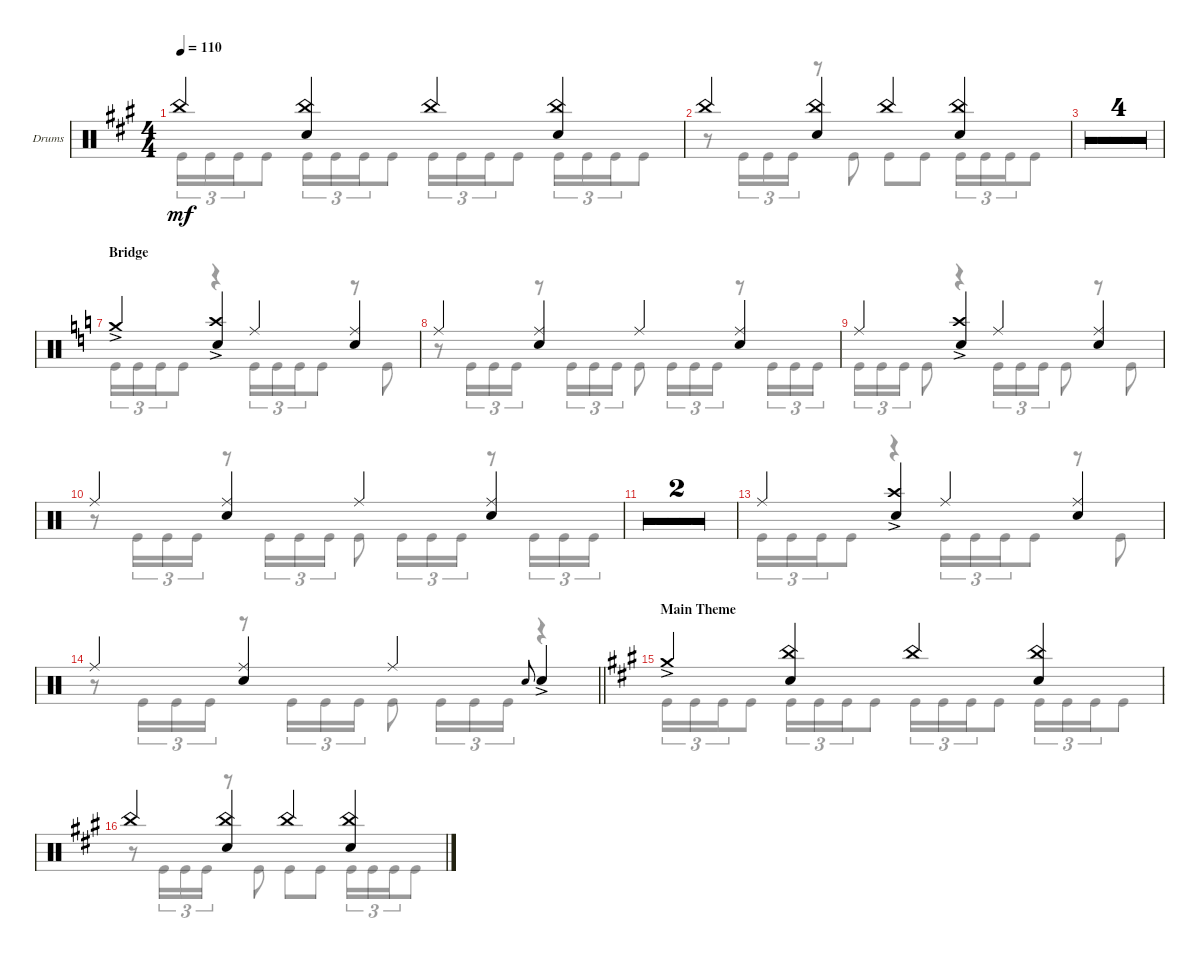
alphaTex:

\defaultSystemsLayout 4
\bracketExtendMode groupsimilarinstruments
\firstSystemTrackNameOrientation horizontal
\otherSystemsTrackNameOrientation horizontal
\track ("Drums" "Drums") {multiBarRest instrument percussion}
\staff {score}
\articulation defaults
\voice
\ts (4 4)
\tempo 110
\clef neutral
\ks f#minor "China (hit)".4{dy mf}
("China (hit)" "Snare (hit) 2").4 "China (hit)".4 ("China (hit)" "Snare (hit) 2").4 |
"China (hit)".4 ("China (hit)" "Snare (hit) 2").4 "China (hit)".4 ("China (hit)" "Snare (hit) 2").4 |
\simile firstofdouble
|
\simile secondofdouble
|
\simile firstofdouble
|
\rc 2
\simile secondofdouble
\barLineRight lightlight
|
\section ("" "Bridge")
\simile none
\ks aminor "Crash medium (hit)"{ac}.4
("Crash high (hit)"{ac} "Snare (hit) 2").4 "Ride (middle)".4 ("Ride (middle)" "Snare (hit) 2").4 |
"Ride (middle)".4 ("Ride (middle)" "Snare (hit) 2").4 "Ride (middle)".4{beam merge} ("Ride (middle)" "Snare (hit) 2").4{beam merge} |
"Ride (middle)".4 ("Crash high (hit)"{ac} "Snare (hit) 2").4 "Ride (middle)".4 ("Ride (middle)" "Snare (hit) 2").4 |
"Ride (middle)".4 ("Ride (middle)" "Snare (hit) 2").4 "Ride (middle)".4 ("Ride (middle)" "Snare (hit) 2").4 |
\simile firstofdouble
|
\simile secondofdouble
|
\simile none "Ride (middle)".4
("Crash high (hit)"{ac} "Snare (hit) 2").4 "Ride (middle)".4 ("Ride (middle)" "Snare (hit) 2").4 |
\barLineRight lightlight "Ride (middle)".4
("Ride (middle)" "Snare (hit) 2").4 "Ride (middle)".4{beam merge} "Snare (hit) 2".8{gr onbeat beam merge} "Snare (hit) 2"{ac}.4{beam merge} |
\section ("" "Main Theme")
\ks a "Crash medium (hit)"{ac}.4
("China (hit)" "Snare (hit) 2").4 "China (hit)".4 ("China (hit)" "Snare (hit) 2").4 |
"China (hit)".4 ("China (hit)" "Snare (hit) 2").4 "China (hit)".4 ("China (hit)" "Snare (hit) 2").4
\voice
\clef neutral
\ottava regular
\simile none
\ks f#minor "Kick (hit)".16{tu (3 2) dy mf} "Kick (hit)".16{tu (3 2)} "Kick (hit)".16{tu (3 2) beam merge} "Kick (hit)".8 "Kick (hit)".16{tu (3 2)} "Kick (hit)".16{tu (3 2)} "Kick (hit)".16{tu (3 2) beam merge} "Kick (hit)".8 "Kick (hit)".16{tu (3 2)} "Kick (hit)".16{tu (3 2)} "Kick (hit)".16{tu (3 2) beam merge} "Kick (hit)".8 "Kick (hit)".16{tu (3 2)} "Kick (hit)".16{tu (3 2)} "Kick (hit)".16{tu (3 2) beam merge} "Kick (hit)".8
|
r.8 "Kick (hit)".16{tu (3 2)} "Kick (hit)".16{tu (3 2)} "Kick (hit)".16{tu (3 2)} r.8 "Kick (hit)".8 "Kick (hit)".8 "Kick (hit)".8 "Kick (hit)".16{tu (3 2)} "Kick (hit)".16{tu (3 2)} "Kick (hit)".16{tu (3 2) beam merge} "Kick (hit)".8 |
\simile firstofdouble
|
\simile secondofdouble
|
\simile firstofdouble
|
\simile secondofdouble
\barLineRight lightlight
|
\simile none
\ks aminor "Kick (hit)".16{tu (3 2)} "Kick (hit)".16{tu (3 2)} "Kick (hit)".16{tu (3 2) beam merge} "Kick (hit)".8
r.4 "Kick (hit)".16{tu (3 2)} "Kick (hit)".16{tu (3 2)} "Kick (hit)".16{tu (3 2) beam merge} "Kick (hit)".8 r.8 "Kick (hit)".8 |
r.8 "Kick (hit)".16{tu (3 2)} "Kick (hit)".16{tu (3 2)} "Kick (hit)".16{tu (3 2)} r.8 "Kick (hit)".16{tu (3 2)} "Kick (hit)".16{tu (3 2)} "Kick (hit)".16{tu (3 2)} "Kick (hit)".8 "Kick (hit)".16{tu (3 2)} "Kick (hit)".16{tu (3 2)} "Kick (hit)".16{tu (3 2)} r.8 "Kick (hit)".16{tu (3 2)} "Kick (hit)".16{tu (3 2)} "Kick (hit)".16{tu (3 2)} |
"Kick (hit)".16{tu (3 2)} "Kick (hit)".16{tu (3 2)} "Kick (hit)".16{tu (3 2)} "Kick (hit)".8 r.4 "Kick (hit)".16{tu (3 2)} "Kick (hit)".16{tu (3 2)} "Kick (hit)".16{tu (3 2)} "Kick (hit)".8 r.8 "Kick (hit)".8 |
r.8 "Kick (hit)".16{tu (3 2)} "Kick (hit)".16{tu (3 2)} "Kick (hit)".16{tu (3 2)} r.8 "Kick (hit)".16{tu (3 2)} "Kick (hit)".16{tu (3 2)} "Kick (hit)".16{tu (3 2)} "Kick (hit)".8 "Kick (hit)".16{tu (3 2)} "Kick (hit)".16{tu (3 2)} "Kick (hit)".16{tu (3 2)} r.8 "Kick (hit)".16{tu (3 2)} "Kick (hit)".16{tu (3 2)} "Kick (hit)".16{tu (3 2)} |
\simile firstofdouble
|
\simile secondofdouble
|
\simile none "Kick (hit)".16{tu (3 2)} "Kick (hit)".16{tu (3 2)} "Kick (hit)".16{tu (3 2) beam merge} "Kick (hit)".8
r.4 "Kick (hit)".16{tu (3 2)} "Kick (hit)".16{tu (3 2)} "Kick (hit)".16{tu (3 2) beam merge} "Kick (hit)".8 r.8 "Kick (hit)".8 |
\barLineRight lightlight
r.8 "Kick (hit)".16{tu (3 2)} "Kick (hit)".16{tu (3 2)} "Kick (hit)".16{tu (3 2)} r.8 "Kick (hit)".16{tu (3 2)} "Kick (hit)".16{tu (3 2)} "Kick (hit)".16{tu (3 2)} "Kick (hit)".8 "Kick (hit)".16{tu (3 2)} "Kick (hit)".16{tu (3 2)} "Kick (hit)".16{tu (3 2)} r.4 |
\ks a "Kick (hit)".16{tu (3 2)} "Kick (hit)".16{tu (3 2)} "Kick (hit)".16{tu (3 2) beam merge} "Kick (hit)".8 "Kick (hit)".16{tu (3 2)} "Kick (hit)".16{tu (3 2)} "Kick (hit)".16{tu (3 2) beam merge} "Kick (hit)".8 "Kick (hit)".16{tu (3 2)} "Kick (hit)".16{tu (3 2)} "Kick (hit)".16{tu (3 2) beam merge} "Kick (hit)".8 "Kick (hit)".16{tu (3 2)} "Kick (hit)".16{tu (3 2)} "Kick (hit)".16{tu (3 2) beam merge} "Kick (hit)".8
|
r.8 "Kick (hit)".16{tu (3 2)} "Kick (hit)".16{tu (3 2)} "Kick (hit)".16{tu (3 2)} r.8 "Kick (hit)".8 "Kick (hit)".8 "Kick (hit)".8 "Kick (hit)".16{tu (3 2)} "Kick (hit)".16{tu (3 2)} "Kick (hit)".16{tu (3 2) beam merge} "Kick (hit)".8
